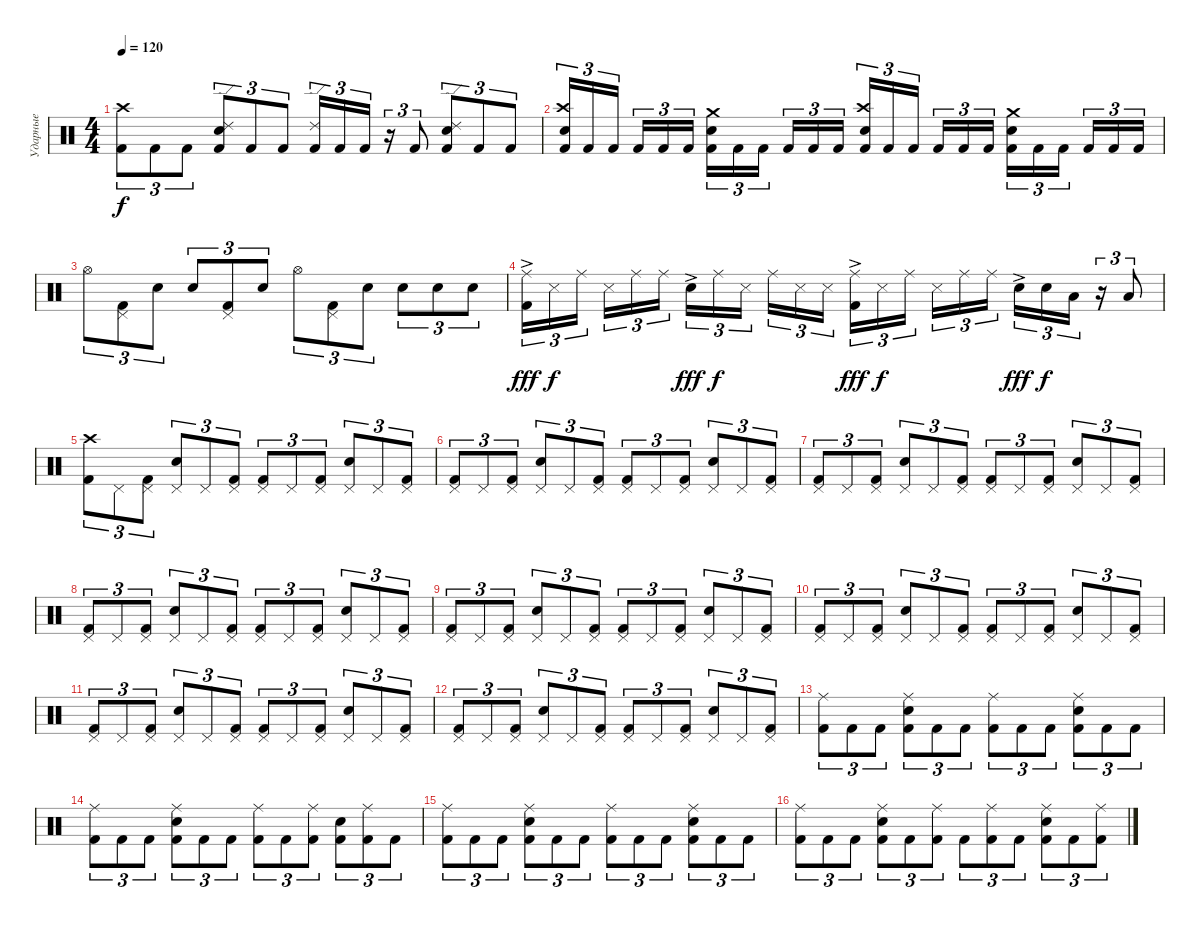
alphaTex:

\track ("Ударные" "Ударные") {instrument percussion}
\staff {score}
\articulation defaults
\ts (4 4)
\tempo 120
\clef neutral
\ks c
("Kick (hit) 2" "Crash high (hit)").8{tu (3 2) dy f} "Kick (hit) 2".8{tu (3 2)} "Kick (hit) 2".8{tu (3 2)} ("Kick (hit) 2" "Snare (hit) 2" "Ride (edge) 2").8{tu (3 2)} "Kick (hit) 2".8{tu (3 2)} "Kick (hit) 2".8{tu (3 2)} ("Kick (hit) 2" "Ride (edge) 2").16{tu (3 2)} "Kick (hit) 2".16{tu (3 2)} "Kick (hit) 2".16{tu (3 2)} r.16{tu (3 2)} "Kick (hit) 2".8{tu (3 2)} ("Kick (hit) 2" "Snare (hit) 2" "Ride (edge) 2").8{tu (3 2)} "Kick (hit) 2".8{tu (3 2)} "Kick (hit) 2".8{tu (3 2)} |
("Kick (hit) 2" "Snare (hit) 2" "Crash high (hit)").16{tu (3 2)} "Kick (hit) 2".16{tu (3 2)} "Kick (hit) 2".16{tu (3 2)} "Kick (hit) 2".16{tu (3 2)} "Kick (hit) 2".16{tu (3 2)} "Kick (hit) 2".16{tu (3 2)} ("Kick (hit) 2" "Snare (hit) 2" "Crash medium (hit)").16{tu (3 2)} "Kick (hit) 2".16{tu (3 2)} "Kick (hit) 2".16{tu (3 2)} "Kick (hit) 2".16{tu (3 2)} "Kick (hit) 2".16{tu (3 2)} "Kick (hit) 2".16{tu (3 2)} ("Kick (hit) 2" "Snare (hit) 2" "Crash high (hit)").16{tu (3 2)} "Kick (hit) 2".16{tu (3 2)} "Kick (hit) 2".16{tu (3 2)} "Kick (hit) 2".16{tu (3 2)} "Kick (hit) 2".16{tu (3 2)} "Kick (hit) 2".16{tu (3 2)} ("Kick (hit) 2" "Snare (hit) 2" "Crash medium (hit)").16{tu (3 2)} "Kick (hit) 2".16{tu (3 2)} "Kick (hit) 2".16{tu (3 2)} "Kick (hit) 2".16{tu (3 2)} "Kick (hit) 2".16{tu (3 2)} "Kick (hit) 2".16{tu (3 2)} |
"Hi-Hat (open)".8{tu (3 2)} ("Kick (hit) 2" "Pedal Hi-Hat (hit)").8{tu (3 2)} "Snare (hit) 2".8{tu (3 2)} "Snare (hit) 2".8{tu (3 2)} ("Kick (hit) 2" "Pedal Hi-Hat (hit)").8{tu (3 2)} "Snare (hit) 2".8{tu (3 2)} "Hi-Hat (open)".8{tu (3 2)} ("Kick (hit) 2" "Pedal Hi-Hat (hit)").8{tu (3 2)} "Snare (hit) 2".8{tu (3 2)} "Snare (hit) 2".8{tu (3 2)} "Snare (hit) 2".8{tu (3 2)} "Snare (hit) 2".8{tu (3 2)} |
("Ride (middle)"{ac} "Kick (hit) 2").16{tu (3 2) dy fff} "Snare (side stick) 3".16{tu (3 2) dy f} "Ride (middle)".16{tu (3 2)} "Snare (side stick) 3".16{tu (3 2)} "Ride (middle)".16{tu (3 2)} "Ride (middle)".16{tu (3 2)} "Snare (hit) 2"{ac}.16{tu (3 2) dy fff} "Ride (middle)".16{tu (3 2) dy f} "Snare (side stick) 3".16{tu (3 2)} "Ride (middle)".16{tu (3 2)} "Snare (side stick) 3".16{tu (3 2)} "Snare (side stick) 3".16{tu (3 2)} ("Ride (middle)"{ac} "Kick (hit) 2").16{tu (3 2) dy fff} "Snare (side stick) 3".16{tu (3 2) dy f} "Ride (middle)".16{tu (3 2)} "Snare (side stick) 3".16{tu (3 2)} "Ride (middle)".16{tu (3 2)} "Ride (middle)".16{tu (3 2)} "Snare (hit) 2"{ac}.16{tu (3 2) dy fff} "Snare (hit) 2".16{tu (3 2) dy f} "Low Tom (hit)".16{tu (3 2)} r.16{tu (3 2)} "Low Tom (hit)".8{tu (3 2)} |
("Kick (hit) 2" "Crash high (hit)").8{tu (3 2)} "Pedal Hi-Hat (hit)".8{tu (3 2)} ("Kick (hit) 2" "Pedal Hi-Hat (hit)").8{tu (3 2)} ("Snare (hit) 2" "Pedal Hi-Hat (hit)").8{tu (3 2)} "Pedal Hi-Hat (hit)".8{tu (3 2)} ("Kick (hit) 2" "Pedal Hi-Hat (hit)").8{tu (3 2)} ("Kick (hit) 2" "Pedal Hi-Hat (hit)").8{tu (3 2)} "Pedal Hi-Hat (hit)".8{tu (3 2)} ("Kick (hit) 2" "Pedal Hi-Hat (hit)").8{tu (3 2)} ("Snare (hit) 2" "Pedal Hi-Hat (hit)").8{tu (3 2)} "Pedal Hi-Hat (hit)".8{tu (3 2)} ("Kick (hit) 2" "Pedal Hi-Hat (hit)").8{tu (3 2)} |
("Kick (hit) 2" "Pedal Hi-Hat (hit)").8{tu (3 2)} "Pedal Hi-Hat (hit)".8{tu (3 2)} ("Kick (hit) 2" "Pedal Hi-Hat (hit)").8{tu (3 2)} ("Snare (hit) 2" "Pedal Hi-Hat (hit)").8{tu (3 2)} "Pedal Hi-Hat (hit)".8{tu (3 2)} ("Kick (hit) 2" "Pedal Hi-Hat (hit)").8{tu (3 2)} ("Kick (hit) 2" "Pedal Hi-Hat (hit)").8{tu (3 2)} "Pedal Hi-Hat (hit)".8{tu (3 2)} ("Kick (hit) 2" "Pedal Hi-Hat (hit)").8{tu (3 2)} ("Snare (hit) 2" "Pedal Hi-Hat (hit)").8{tu (3 2)} "Pedal Hi-Hat (hit)".8{tu (3 2)} ("Kick (hit) 2" "Pedal Hi-Hat (hit)").8{tu (3 2)} |
("Kick (hit) 2" "Pedal Hi-Hat (hit)").8{tu (3 2)} "Pedal Hi-Hat (hit)".8{tu (3 2)} ("Kick (hit) 2" "Pedal Hi-Hat (hit)").8{tu (3 2)} ("Snare (hit) 2" "Pedal Hi-Hat (hit)").8{tu (3 2)} "Pedal Hi-Hat (hit)".8{tu (3 2)} ("Kick (hit) 2" "Pedal Hi-Hat (hit)").8{tu (3 2)} ("Kick (hit) 2" "Pedal Hi-Hat (hit)").8{tu (3 2)} "Pedal Hi-Hat (hit)".8{tu (3 2)} ("Kick (hit) 2" "Pedal Hi-Hat (hit)").8{tu (3 2)} ("Snare (hit) 2" "Pedal Hi-Hat (hit)").8{tu (3 2)} "Pedal Hi-Hat (hit)".8{tu (3 2)} ("Kick (hit) 2" "Pedal Hi-Hat (hit)").8{tu (3 2)} |
("Kick (hit) 2" "Pedal Hi-Hat (hit)").8{tu (3 2)} "Pedal Hi-Hat (hit)".8{tu (3 2)} ("Kick (hit) 2" "Pedal Hi-Hat (hit)").8{tu (3 2)} ("Snare (hit) 2" "Pedal Hi-Hat (hit)").8{tu (3 2)} "Pedal Hi-Hat (hit)".8{tu (3 2)} ("Kick (hit) 2" "Pedal Hi-Hat (hit)").8{tu (3 2)} ("Kick (hit) 2" "Pedal Hi-Hat (hit)").8{tu (3 2)} "Pedal Hi-Hat (hit)".8{tu (3 2)} ("Kick (hit) 2" "Pedal Hi-Hat (hit)").8{tu (3 2)} ("Snare (hit) 2" "Pedal Hi-Hat (hit)").8{tu (3 2)} "Pedal Hi-Hat (hit)".8{tu (3 2)} ("Kick (hit) 2" "Pedal Hi-Hat (hit)").8{tu (3 2)} |
("Kick (hit) 2" "Pedal Hi-Hat (hit)").8{tu (3 2)} "Pedal Hi-Hat (hit)".8{tu (3 2)} ("Kick (hit) 2" "Pedal Hi-Hat (hit)").8{tu (3 2)} ("Snare (hit) 2" "Pedal Hi-Hat (hit)").8{tu (3 2)} "Pedal Hi-Hat (hit)".8{tu (3 2)} ("Kick (hit) 2" "Pedal Hi-Hat (hit)").8{tu (3 2)} ("Kick (hit) 2" "Pedal Hi-Hat (hit)").8{tu (3 2)} "Pedal Hi-Hat (hit)".8{tu (3 2)} ("Kick (hit) 2" "Pedal Hi-Hat (hit)").8{tu (3 2)} ("Snare (hit) 2" "Pedal Hi-Hat (hit)").8{tu (3 2)} "Pedal Hi-Hat (hit)".8{tu (3 2)} ("Kick (hit) 2" "Pedal Hi-Hat (hit)").8{tu (3 2)} |
("Kick (hit) 2" "Pedal Hi-Hat (hit)").8{tu (3 2)} "Pedal Hi-Hat (hit)".8{tu (3 2)} ("Kick (hit) 2" "Pedal Hi-Hat (hit)").8{tu (3 2)} ("Snare (hit) 2" "Pedal Hi-Hat (hit)").8{tu (3 2)} "Pedal Hi-Hat (hit)".8{tu (3 2)} ("Kick (hit) 2" "Pedal Hi-Hat (hit)").8{tu (3 2)} ("Kick (hit) 2" "Pedal Hi-Hat (hit)").8{tu (3 2)} "Pedal Hi-Hat (hit)".8{tu (3 2)} ("Kick (hit) 2" "Pedal Hi-Hat (hit)").8{tu (3 2)} ("Snare (hit) 2" "Pedal Hi-Hat (hit)").8{tu (3 2)} "Pedal Hi-Hat (hit)".8{tu (3 2)} ("Kick (hit) 2" "Pedal Hi-Hat (hit)").8{tu (3 2)} |
("Kick (hit) 2" "Pedal Hi-Hat (hit)").8{tu (3 2)} "Pedal Hi-Hat (hit)".8{tu (3 2)} ("Kick (hit) 2" "Pedal Hi-Hat (hit)").8{tu (3 2)} ("Snare (hit) 2" "Pedal Hi-Hat (hit)").8{tu (3 2)} "Pedal Hi-Hat (hit)".8{tu (3 2)} ("Kick (hit) 2" "Pedal Hi-Hat (hit)").8{tu (3 2)} ("Kick (hit) 2" "Pedal Hi-Hat (hit)").8{tu (3 2)} "Pedal Hi-Hat (hit)".8{tu (3 2)} ("Kick (hit) 2" "Pedal Hi-Hat (hit)").8{tu (3 2)} ("Snare (hit) 2" "Pedal Hi-Hat (hit)").8{tu (3 2)} "Pedal Hi-Hat (hit)".8{tu (3 2)} ("Kick (hit) 2" "Pedal Hi-Hat (hit)").8{tu (3 2)} |
("Kick (hit) 2" "Pedal Hi-Hat (hit)").8{tu (3 2)} "Pedal Hi-Hat (hit)".8{tu (3 2)} ("Kick (hit) 2" "Pedal Hi-Hat (hit)").8{tu (3 2)} ("Snare (hit) 2" "Pedal Hi-Hat (hit)").8{tu (3 2)} "Pedal Hi-Hat (hit)".8{tu (3 2)} ("Kick (hit) 2" "Pedal Hi-Hat (hit)").8{tu (3 2)} ("Kick (hit) 2" "Pedal Hi-Hat (hit)").8{tu (3 2)} "Pedal Hi-Hat (hit)".8{tu (3 2)} ("Kick (hit) 2" "Pedal Hi-Hat (hit)").8{tu (3 2)} ("Snare (hit) 2" "Pedal Hi-Hat (hit)").8{tu (3 2)} "Pedal Hi-Hat (hit)".8{tu (3 2)} ("Kick (hit) 2" "Pedal Hi-Hat (hit)").8{tu (3 2)} |
("Kick (hit) 2" "Ride (middle)").8{tu (3 2)} "Kick (hit) 2".8{tu (3 2)} "Kick (hit) 2".8{tu (3 2)} ("Kick (hit) 2" "Snare (hit) 2" "Ride (middle)").8{tu (3 2)} "Kick (hit) 2".8{tu (3 2)} "Kick (hit) 2".8{tu (3 2)} ("Kick (hit) 2" "Ride (middle)").8{tu (3 2)} "Kick (hit) 2".8{tu (3 2)} "Kick (hit) 2".8{tu (3 2)} ("Kick (hit) 2" "Snare (hit) 2" "Ride (middle)").8{tu (3 2)} "Kick (hit) 2".8{tu (3 2)} "Kick (hit) 2".8{tu (3 2)} |
("Kick (hit) 2" "Ride (middle)").8{tu (3 2)} "Kick (hit) 2".8{tu (3 2)} "Kick (hit) 2".8{tu (3 2)} ("Kick (hit) 2" "Snare (hit) 2" "Ride (middle)").8{tu (3 2)} "Kick (hit) 2".8{tu (3 2)} "Kick (hit) 2".8{tu (3 2)} ("Kick (hit) 2" "Ride (middle)").8{tu (3 2)} "Kick (hit) 2".8{tu (3 2)} ("Kick (hit) 2" "Ride (middle)").8{tu (3 2)} ("Kick (hit) 2" "Snare (hit) 2").8{tu (3 2)} ("Kick (hit) 2" "Ride (middle)").8{tu (3 2)} "Kick (hit) 2".8{tu (3 2)} |
("Kick (hit) 2" "Ride (middle)").8{tu (3 2)} "Kick (hit) 2".8{tu (3 2)} "Kick (hit) 2".8{tu (3 2)} ("Kick (hit) 2" "Snare (hit) 2" "Ride (middle)").8{tu (3 2)} "Kick (hit) 2".8{tu (3 2)} "Kick (hit) 2".8{tu (3 2)} ("Kick (hit) 2" "Ride (middle)").8{tu (3 2)} "Kick (hit) 2".8{tu (3 2)} "Kick (hit) 2".8{tu (3 2)} ("Kick (hit) 2" "Snare (hit) 2" "Ride (middle)").8{tu (3 2)} "Kick (hit) 2".8{tu (3 2)} "Kick (hit) 2".8{tu (3 2)} |
("Kick (hit) 2" "Ride (middle)").8{tu (3 2)} "Kick (hit) 2".8{tu (3 2)} "Kick (hit) 2".8{tu (3 2)} ("Kick (hit) 2" "Snare (hit) 2" "Ride (middle)").8{tu (3 2)} "Kick (hit) 2".8{tu (3 2)} ("Kick (hit) 2" "Ride (middle)").8{tu (3 2)} "Kick (hit) 2".8{tu (3 2)} ("Kick (hit) 2" "Ride (middle)").8{tu (3 2)} "Kick (hit) 2".8{tu (3 2)} ("Kick (hit) 2" "Snare (hit) 2" "Ride (middle)").8{tu (3 2)} "Kick (hit) 2".8{tu (3 2)} ("Kick (hit) 2" "Ride (middle)").8{tu (3 2)}
